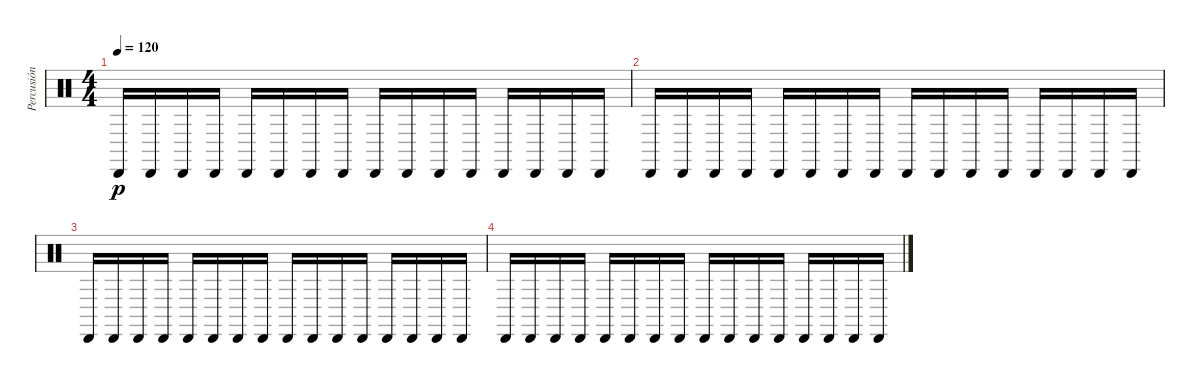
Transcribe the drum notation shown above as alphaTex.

\track ("Percusión" "Percusión") {instrument percussion}
\staff {score}
\articulation defaults
\ts (4 4)
\tempo 120
\clef neutral
\ks c "Cabasa (hit)".16{dy p} "Cabasa (hit)".16 "Cabasa (hit)".16 "Cabasa (hit)".16 "Cabasa (hit)".16 "Cabasa (hit)".16 "Cabasa (hit)".16 "Cabasa (hit)".16 "Cabasa (hit)".16 "Cabasa (hit)".16 "Cabasa (hit)".16 "Cabasa (hit)".16 "Cabasa (hit)".16 "Cabasa (hit)".16 "Cabasa (hit)".16 "Cabasa (hit)".16
|
"Cabasa (hit)".16 "Cabasa (hit)".16 "Cabasa (hit)".16 "Cabasa (hit)".16 "Cabasa (hit)".16 "Cabasa (hit)".16 "Cabasa (hit)".16 "Cabasa (hit)".16 "Cabasa (hit)".16 "Cabasa (hit)".16 "Cabasa (hit)".16 "Cabasa (hit)".16 "Cabasa (hit)".16 "Cabasa (hit)".16 "Cabasa (hit)".16 "Cabasa (hit)".16 |
"Cabasa (hit)".16 "Cabasa (hit)".16 "Cabasa (hit)".16 "Cabasa (hit)".16 "Cabasa (hit)".16 "Cabasa (hit)".16 "Cabasa (hit)".16 "Cabasa (hit)".16 "Cabasa (hit)".16 "Cabasa (hit)".16 "Cabasa (hit)".16 "Cabasa (hit)".16 "Cabasa (hit)".16 "Cabasa (hit)".16 "Cabasa (hit)".16 "Cabasa (hit)".16 |
"Cabasa (hit)".16 "Cabasa (hit)".16 "Cabasa (hit)".16 "Cabasa (hit)".16 "Cabasa (hit)".16 "Cabasa (hit)".16 "Cabasa (hit)".16 "Cabasa (hit)".16 "Cabasa (hit)".16 "Cabasa (hit)".16 "Cabasa (hit)".16 "Cabasa (hit)".16 "Cabasa (hit)".16 "Cabasa (hit)".16 "Cabasa (hit)".16 "Cabasa (hit)".16
